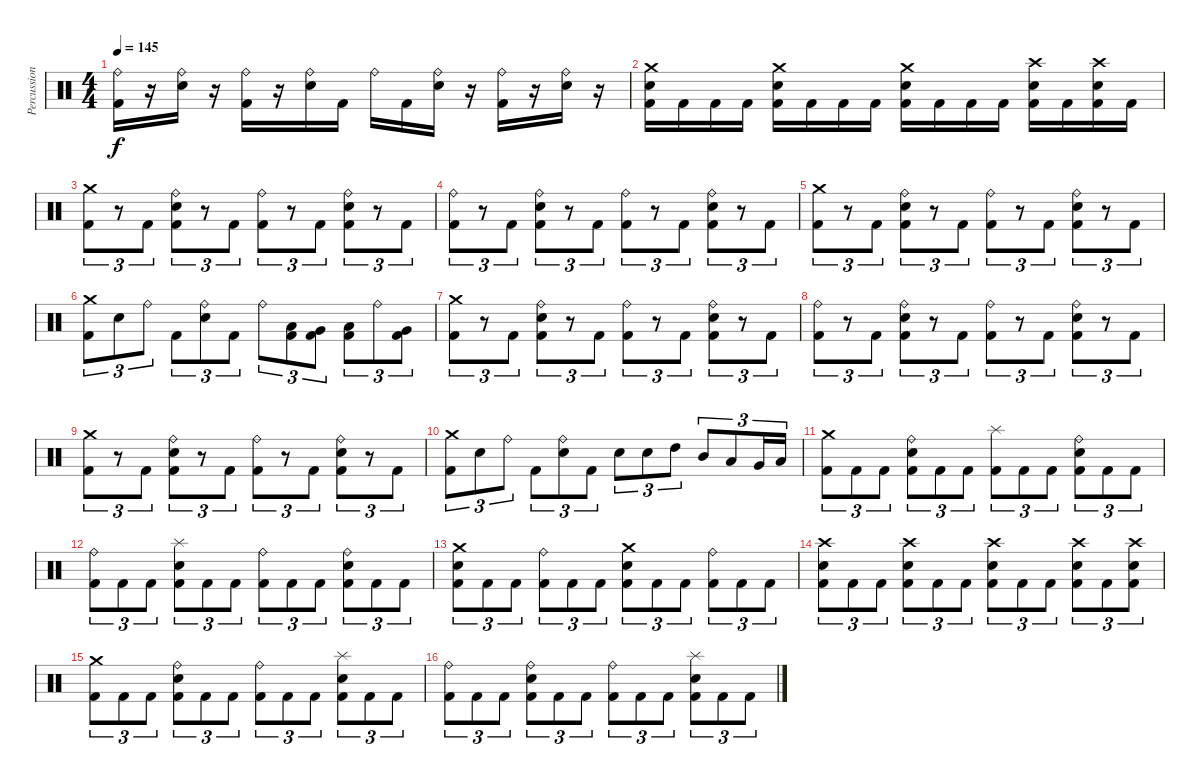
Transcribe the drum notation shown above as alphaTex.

\track ("Percussion" "Percussion") {instrument percussion}
\staff {score}
\articulation defaults
\ts (4 4)
\tempo 145
\clef neutral
\ks c
("Ride (bell)" "Kick (hit) 2").16{dy f} r.16 ("Ride (bell)" "Snare (hit) 2").16 r.16 ("Ride (bell)" "Kick (hit) 2").16 r.16 ("Ride (bell)" "Snare (hit) 2").16 "Kick (hit) 2".16 "Ride (bell)".16 "Kick (hit) 2".16 ("Ride (bell)" "Snare (hit) 2").16 r.16 ("Ride (bell)" "Kick (hit) 2").16 r.16 ("Ride (bell)" "Snare (hit) 2").16 r.16 |
("Crash medium (hit)" "Snare (hit) 2" "Kick (hit) 2").16 "Kick (hit) 2".16 "Kick (hit) 2".16 "Kick (hit) 2".16 ("Crash medium (hit)" "Snare (hit) 2" "Kick (hit) 2").16 "Kick (hit) 2".16 "Kick (hit) 2".16 "Kick (hit) 2".16 ("Crash medium (hit)" "Snare (hit) 2" "Kick (hit) 2").16 "Kick (hit) 2".16 "Kick (hit) 2".16 "Kick (hit) 2".16 ("Crash high (hit)" "Snare (hit) 2" "Kick (hit) 2").16 "Kick (hit) 2".16 ("Crash high (hit)" "Snare (hit) 2" "Kick (hit) 2").16 "Kick (hit) 2".16 |
("Crash medium (hit)" "Kick (hit) 2").8{tu (3 2)} r.8{tu (3 2)} "Kick (hit) 2".8{tu (3 2)} ("Ride (bell)" "Snare (hit) 2" "Kick (hit) 2").8{tu (3 2)} r.8{tu (3 2)} "Kick (hit) 2".8{tu (3 2)} ("Ride (bell)" "Kick (hit) 2").8{tu (3 2)} r.8{tu (3 2)} "Kick (hit) 2".8{tu (3 2)} ("Ride (bell)" "Snare (hit) 2" "Kick (hit) 2").8{tu (3 2)} r.8{tu (3 2)} "Kick (hit) 2".8{tu (3 2)} |
("Ride (bell)" "Kick (hit) 2").8{tu (3 2)} r.8{tu (3 2)} "Kick (hit) 2".8{tu (3 2)} ("Ride (bell)" "Snare (hit) 2" "Kick (hit) 2").8{tu (3 2)} r.8{tu (3 2)} "Kick (hit) 2".8{tu (3 2)} ("Ride (bell)" "Kick (hit) 2").8{tu (3 2)} r.8{tu (3 2)} "Kick (hit) 2".8{tu (3 2)} ("Ride (bell)" "Snare (hit) 2" "Kick (hit) 2").8{tu (3 2)} r.8{tu (3 2)} "Kick (hit) 2".8{tu (3 2)} |
("Crash medium (hit)" "Kick (hit) 2").8{tu (3 2)} r.8{tu (3 2)} "Kick (hit) 2".8{tu (3 2)} ("Ride (bell)" "Snare (hit) 2" "Kick (hit) 2").8{tu (3 2)} r.8{tu (3 2)} "Kick (hit) 2".8{tu (3 2)} ("Ride (bell)" "Kick (hit) 2").8{tu (3 2)} r.8{tu (3 2)} "Kick (hit) 2".8{tu (3 2)} ("Ride (bell)" "Snare (hit) 2" "Kick (hit) 2").8{tu (3 2)} r.8{tu (3 2)} "Kick (hit) 2".8{tu (3 2)} |
("Crash medium (hit)" "Kick (hit) 2").8{tu (3 2)} "Snare (hit) 2".8{tu (3 2)} "Ride (bell)".8{tu (3 2)} "Kick (hit) 2".8{tu (3 2)} ("Ride (bell)" "Snare (hit) 2").8{tu (3 2)} "Kick (hit) 2".8{tu (3 2)} "Ride (bell)".8{tu (3 2)} ("Low Tom (hit)" "Kick (hit) 2").8{tu (3 2)} ("Very Low Tom (hit)" "Kick (hit) 2").8{tu (3 2)} ("Low Floor Tom (hit)" "Kick (hit) 2").8{tu (3 2)} "Ride (bell)".8{tu (3 2)} ("Very Low Tom (hit)" "Kick (hit) 2").8{tu (3 2)} |
("Crash medium (hit)" "Kick (hit) 2").8{tu (3 2)} r.8{tu (3 2)} "Kick (hit) 2".8{tu (3 2)} ("Ride (bell)" "Snare (hit) 2" "Kick (hit) 2").8{tu (3 2)} r.8{tu (3 2)} "Kick (hit) 2".8{tu (3 2)} ("Ride (bell)" "Kick (hit) 2").8{tu (3 2)} r.8{tu (3 2)} "Kick (hit) 2".8{tu (3 2)} ("Ride (bell)" "Snare (hit) 2" "Kick (hit) 2").8{tu (3 2)} r.8{tu (3 2)} "Kick (hit) 2".8{tu (3 2)} |
("Ride (bell)" "Kick (hit) 2").8{tu (3 2)} r.8{tu (3 2)} "Kick (hit) 2".8{tu (3 2)} ("Ride (bell)" "Snare (hit) 2" "Kick (hit) 2").8{tu (3 2)} r.8{tu (3 2)} "Kick (hit) 2".8{tu (3 2)} ("Ride (bell)" "Kick (hit) 2").8{tu (3 2)} r.8{tu (3 2)} "Kick (hit) 2".8{tu (3 2)} ("Ride (bell)" "Snare (hit) 2" "Kick (hit) 2").8{tu (3 2)} r.8{tu (3 2)} "Kick (hit) 2".8{tu (3 2)} |
("Crash medium (hit)" "Kick (hit) 2").8{tu (3 2)} r.8{tu (3 2)} "Kick (hit) 2".8{tu (3 2)} ("Ride (bell)" "Snare (hit) 2" "Kick (hit) 2").8{tu (3 2)} r.8{tu (3 2)} "Kick (hit) 2".8{tu (3 2)} ("Ride (bell)" "Kick (hit) 2").8{tu (3 2)} r.8{tu (3 2)} "Kick (hit) 2".8{tu (3 2)} ("Ride (bell)" "Snare (hit) 2" "Kick (hit) 2").8{tu (3 2)} r.8{tu (3 2)} "Kick (hit) 2".8{tu (3 2)} |
("Crash medium (hit)" "Kick (hit) 2").8{tu (3 2)} "Snare (hit) 2".8{tu (3 2)} "Ride (bell)".8{tu (3 2)} "Kick (hit) 2".8{tu (3 2)} ("Ride (bell)" "Snare (hit) 2").8{tu (3 2)} "Kick (hit) 2".8{tu (3 2)} "Snare (hit) 2".8{tu (3 2)} "Snare (hit) 2".8{tu (3 2)} "High Tom (hit)".8{tu (3 2)} "Mid Tom (hit)".8{tu (3 2)} "Low Tom (hit)".8{tu (3 2)} "Very Low Tom (hit)".16{tu (3 2)} "Low Floor Tom (hit)".16{tu (3 2)} |
("Crash medium (hit)" "Kick (hit) 2").8{tu (3 2)} "Kick (hit) 2".8{tu (3 2)} "Kick (hit) 2".8{tu (3 2)} ("Ride (bell)" "Snare (hit) 2" "Kick (hit) 2").8{tu (3 2)} "Kick (hit) 2".8{tu (3 2)} "Kick (hit) 2".8{tu (3 2)} ("Splash (hit)" "Kick (hit) 2").8{tu (3 2)} "Kick (hit) 2".8{tu (3 2)} "Kick (hit) 2".8{tu (3 2)} ("Ride (bell)" "Snare (hit) 2" "Kick (hit) 2").8{tu (3 2)} "Kick (hit) 2".8{tu (3 2)} "Kick (hit) 2".8{tu (3 2)} |
("Ride (bell)" "Kick (hit) 2").8{tu (3 2)} "Kick (hit) 2".8{tu (3 2)} "Kick (hit) 2".8{tu (3 2)} ("Splash (hit)" "Snare (hit) 2" "Kick (hit) 2").8{tu (3 2)} "Kick (hit) 2".8{tu (3 2)} "Kick (hit) 2".8{tu (3 2)} ("Ride (bell)" "Kick (hit) 2").8{tu (3 2)} "Kick (hit) 2".8{tu (3 2)} "Kick (hit) 2".8{tu (3 2)} ("Ride (bell)" "Snare (hit) 2" "Kick (hit) 2").8{tu (3 2)} "Kick (hit) 2".8{tu (3 2)} "Kick (hit) 2".8{tu (3 2)} |
("Crash medium (hit)" "Snare (hit) 2" "Kick (hit) 2").8{tu (3 2)} "Kick (hit) 2".8{tu (3 2)} "Kick (hit) 2".8{tu (3 2)} ("Ride (bell)" "Kick (hit) 2").8{tu (3 2)} "Kick (hit) 2".8{tu (3 2)} "Kick (hit) 2".8{tu (3 2)} ("Crash medium (hit)" "Snare (hit) 2" "Kick (hit) 2").8{tu (3 2)} "Kick (hit) 2".8{tu (3 2)} "Kick (hit) 2".8{tu (3 2)} ("Ride (bell)" "Kick (hit) 2").8{tu (3 2)} "Kick (hit) 2".8{tu (3 2)} "Kick (hit) 2".8{tu (3 2)} |
("Crash high (hit)" "Snare (hit) 2" "Kick (hit) 2").8{tu (3 2)} "Kick (hit) 2".8{tu (3 2)} "Kick (hit) 2".8{tu (3 2)} ("Crash high (hit)" "Snare (hit) 2" "Kick (hit) 2").8{tu (3 2)} "Kick (hit) 2".8{tu (3 2)} "Kick (hit) 2".8{tu (3 2)} ("Crash high (hit)" "Snare (hit) 2" "Kick (hit) 2").8{tu (3 2)} "Kick (hit) 2".8{tu (3 2)} "Kick (hit) 2".8{tu (3 2)} ("Crash high (hit)" "Snare (hit) 2" "Kick (hit) 2").8{tu (3 2)} "Kick (hit) 2".8{tu (3 2)} ("Crash high (hit)" "Snare (hit) 2" "Kick (hit) 2").8{tu (3 2)} |
("Crash medium (hit)" "Kick (hit) 2").8{tu (3 2)} "Kick (hit) 2".8{tu (3 2)} "Kick (hit) 2".8{tu (3 2)} ("Ride (bell)" "Snare (hit) 2" "Kick (hit) 2").8{tu (3 2)} "Kick (hit) 2".8{tu (3 2)} "Kick (hit) 2".8{tu (3 2)} ("Ride (bell)" "Kick (hit) 2").8{tu (3 2)} "Kick (hit) 2".8{tu (3 2)} "Kick (hit) 2".8{tu (3 2)} ("Splash (hit)" "Snare (hit) 2" "Kick (hit) 2").8{tu (3 2)} "Kick (hit) 2".8{tu (3 2)} "Kick (hit) 2".8{tu (3 2)} |
("Ride (bell)" "Kick (hit) 2").8{tu (3 2)} "Kick (hit) 2".8{tu (3 2)} "Kick (hit) 2".8{tu (3 2)} ("Ride (bell)" "Snare (hit) 2" "Kick (hit) 2").8{tu (3 2)} "Kick (hit) 2".8{tu (3 2)} "Kick (hit) 2".8{tu (3 2)} ("Ride (bell)" "Kick (hit) 2").8{tu (3 2)} "Kick (hit) 2".8{tu (3 2)} "Kick (hit) 2".8{tu (3 2)} ("Splash (hit)" "Snare (hit) 2" "Kick (hit) 2").8{tu (3 2)} "Kick (hit) 2".8{tu (3 2)} "Kick (hit) 2".8{tu (3 2)}
